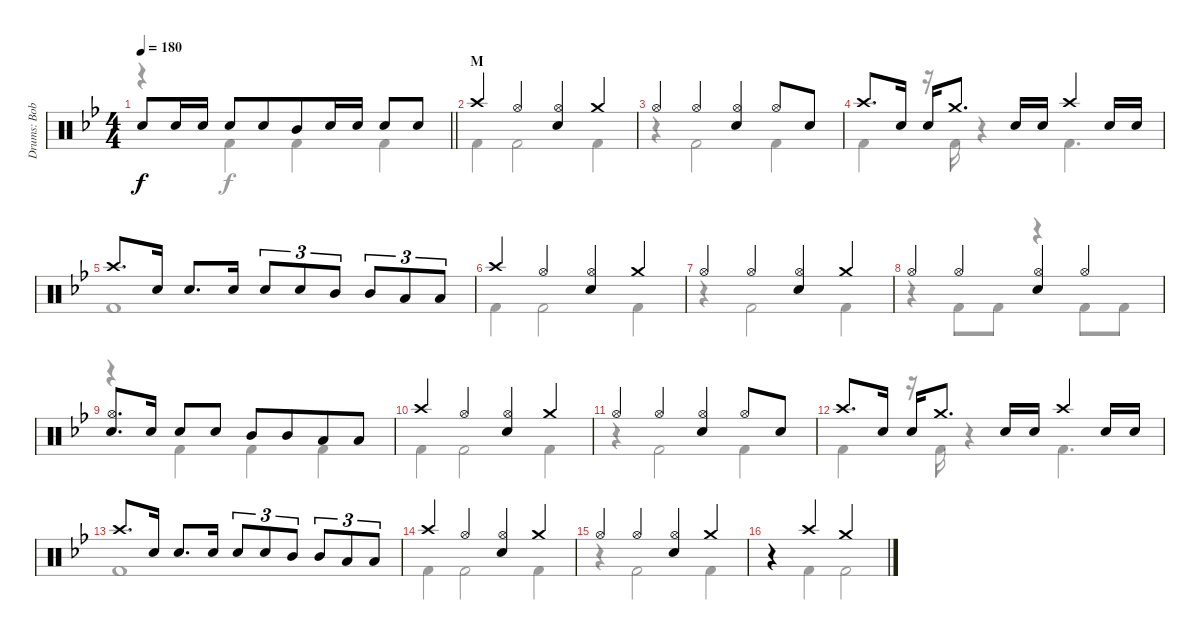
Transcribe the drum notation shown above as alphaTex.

\track ("Drums: Bobby" "Drums: Bob") {instrument percussion}
\staff {score}
\articulation defaults
\voice
\ts (4 4)
\tempo 180
\clef neutral
\barLineRight lightlight
\ks bb "Snare (hit) 2".8{dy f} "Snare (hit) 2".16 "Snare (hit) 2".16 "Snare (hit) 2".8 "Snare (hit) 2".8{beam merge} "Mid Tom (hit)".8 "Snare (hit) 2".16 "Snare (hit) 2".16 "Snare (hit) 2".8 "Snare (hit) 2".8
|
\section ("" "M")
"Crash high (hit)".4 "Hi-Hat (open)".4 ("Hi-Hat (open)" "Snare (hit) 2").4 "Crash medium (hit)".4 |
"Hi-Hat (open)".4 "Hi-Hat (open)".4 ("Hi-Hat (open)" "Snare (hit) 2").4 "Hi-Hat (open)".8 "Snare (hit) 2".8 |
"Crash high (hit)".8{d} "Snare (hit) 2".16 "Snare (hit) 2".16 "Crash medium (hit)".8{d} "Snare (hit) 2".16 "Snare (hit) 2".16 "Crash high (hit)".4 "Snare (hit) 2".16 "Snare (hit) 2".16 |
"Crash high (hit)".8{d} "Snare (hit) 2".16 "Snare (hit) 2".8{d} "Snare (hit) 2".16 "Snare (hit) 2".8{tu (3 2)} "Snare (hit) 2".8{tu (3 2)} "Mid Tom (hit)".8{tu (3 2)} "Mid Tom (hit)".8{tu (3 2)} "Low Tom (hit)".8{tu (3 2)} "Low Tom (hit)".8{tu (3 2)} |
"Crash high (hit)".4 "Hi-Hat (open)".4 ("Hi-Hat (open)" "Snare (hit) 2").4 "Crash medium (hit)".4 |
"Hi-Hat (open)".4 "Hi-Hat (open)".4 ("Hi-Hat (open)" "Snare (hit) 2").4 "Crash medium (hit)".4 |
"Hi-Hat (open)".4 "Hi-Hat (open)".4 ("Hi-Hat (open)" "Snare (hit) 2").4 "Hi-Hat (open)".4 |
("Hi-Hat (open)" "Snare (hit) 2").8{d} "Snare (hit) 2".16 "Snare (hit) 2".8 "Snare (hit) 2".8 "Mid Tom (hit)".8 "Mid Tom (hit)".8{beam merge} "Low Tom (hit)".8 "Low Tom (hit)".8 |
"Crash high (hit)".4 "Hi-Hat (open)".4 ("Hi-Hat (open)" "Snare (hit) 2").4 "Crash medium (hit)".4 |
"Hi-Hat (open)".4 "Hi-Hat (open)".4 ("Hi-Hat (open)" "Snare (hit) 2").4 "Hi-Hat (open)".8 "Snare (hit) 2".8 |
"Crash high (hit)".8{d} "Snare (hit) 2".16 "Snare (hit) 2".16 "Crash medium (hit)".8{d} "Snare (hit) 2".16 "Snare (hit) 2".16 "Crash high (hit)".4 "Snare (hit) 2".16 "Snare (hit) 2".16 |
"Crash high (hit)".8{d} "Snare (hit) 2".16 "Snare (hit) 2".8{d} "Snare (hit) 2".16 "Snare (hit) 2".8{tu (3 2)} "Snare (hit) 2".8{tu (3 2)} "Mid Tom (hit)".8{tu (3 2)} "Mid Tom (hit)".8{tu (3 2)} "Low Tom (hit)".8{tu (3 2)} "Low Tom (hit)".8{tu (3 2)} |
"Crash high (hit)".4 "Hi-Hat (open)".4 ("Hi-Hat (open)" "Snare (hit) 2").4 "Crash medium (hit)".4 |
"Hi-Hat (open)".4 "Hi-Hat (open)".4 ("Hi-Hat (open)" "Snare (hit) 2").4 "Crash medium (hit)".4 |
r.4 "Crash high (hit)".4 "Crash medium (hit)".2
\voice
\clef neutral
\ottava regular
\simile none
\barLineRight lightlight
\ks bb
r.4{dy f} "Kick (hit) 2".4 "Kick (hit) 2".4 "Kick (hit) 2".4 |
"Kick (hit) 2".4 "Kick (hit) 2".2 "Kick (hit) 2".4 |
r.4 "Kick (hit) 2".2 "Kick (hit) 2".4 |
"Kick (hit) 2".4 r.16 "Kick (hit) 2".16 r.4 "Kick (hit) 2".4{d} |
"Kick (hit) 2".1 |
"Kick (hit) 2".4 "Kick (hit) 2".2 "Kick (hit) 2".4 |
r.4 "Kick (hit) 2".2 "Kick (hit) 2".4 |
r.4 "Kick (hit) 2".8 "Kick (hit) 2".8 r.4 "Kick (hit) 2".8 "Kick (hit) 2".8 |
r.4 "Kick (hit) 2".4 "Kick (hit) 2".4 "Kick (hit) 2".4 |
"Kick (hit) 2".4 "Kick (hit) 2".2 "Kick (hit) 2".4 |
r.4 "Kick (hit) 2".2 "Kick (hit) 2".4 |
"Kick (hit) 2".4 r.16 "Kick (hit) 2".16 r.4 "Kick (hit) 2".4{d} |
"Kick (hit) 2".1 |
"Kick (hit) 2".4 "Kick (hit) 2".2 "Kick (hit) 2".4 |
r.4 "Kick (hit) 2".2 "Kick (hit) 2".4 |
r.4 "Kick (hit) 2".4 "Kick (hit) 2".2
